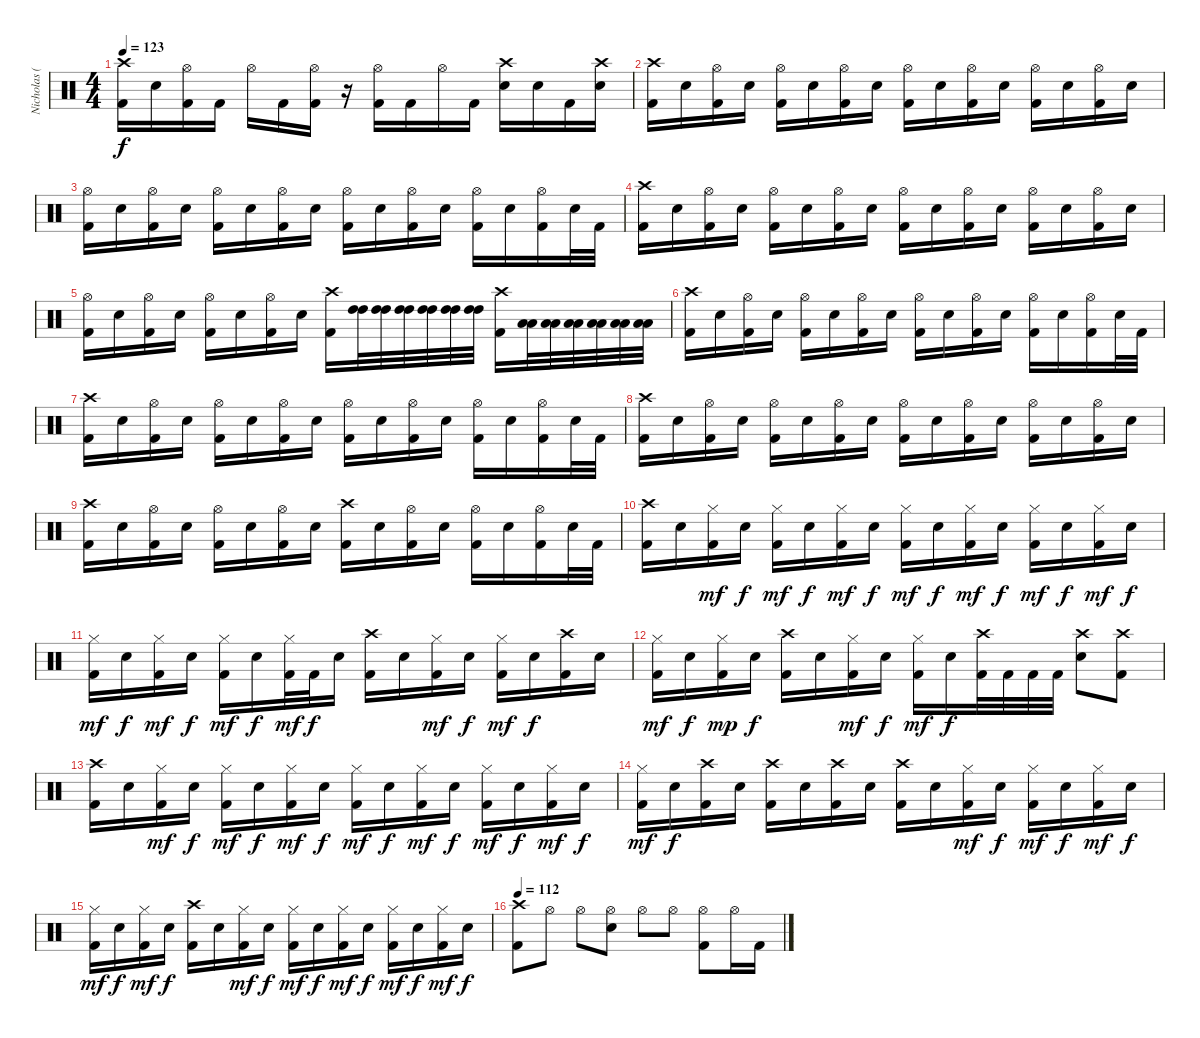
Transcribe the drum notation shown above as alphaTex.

\track ("Nicholas (Drums)" "Nicholas (") {instrument percussion}
\staff {score}
\articulation defaults
\ts (4 4)
\tempo 123
\clef neutral
\ks c
("Crash high (hit)" "Kick (hit) 2").16{dy f} "Electric Snare (hit)".16 ("Hi-Hat (open)" "Kick (hit) 2").16 "Kick (hit) 2".16 "Hi-Hat (open)".16 "Kick (hit) 2".16 ("Hi-Hat (open)" "Kick (hit) 2").16 r.16 ("Hi-Hat (open)" "Kick (hit) 2").16 "Kick (hit) 2".16 "Hi-Hat (open)".16 "Kick (hit) 2".16 ("Crash high (hit)" "Electric Snare (hit)").16 "Electric Snare (hit)".16 "Kick (hit) 2".16 ("Crash high (hit)" "Electric Snare (hit)").16 |
("Crash high (hit)" "Kick (hit) 2").16 "Electric Snare (hit)".16 ("Hi-Hat (open)" "Kick (hit) 2").16 "Electric Snare (hit)".16 ("Hi-Hat (open)" "Kick (hit) 2").16 "Electric Snare (hit)".16 ("Hi-Hat (open)" "Kick (hit) 2").16 "Electric Snare (hit)".16 ("Hi-Hat (open)" "Kick (hit) 2").16 "Electric Snare (hit)".16 ("Hi-Hat (open)" "Kick (hit) 2").16 "Electric Snare (hit)".16 ("Hi-Hat (open)" "Kick (hit) 2").16 "Electric Snare (hit)".16 ("Hi-Hat (open)" "Kick (hit) 2").16 "Electric Snare (hit)".16 |
("Hi-Hat (open)" "Kick (hit) 2").16 "Electric Snare (hit)".16 ("Hi-Hat (open)" "Kick (hit) 2").16 "Electric Snare (hit)".16 ("Hi-Hat (open)" "Kick (hit) 2").16 "Electric Snare (hit)".16 ("Hi-Hat (open)" "Kick (hit) 2").16 "Electric Snare (hit)".16 ("Hi-Hat (open)" "Kick (hit) 2").16 "Electric Snare (hit)".16 ("Hi-Hat (open)" "Kick (hit) 2").16 "Electric Snare (hit)".16 ("Hi-Hat (open)" "Kick (hit) 2").16 "Electric Snare (hit)".16 ("Hi-Hat (open)" "Kick (hit) 2").16 "Electric Snare (hit)".32 "Kick (hit) 2".32 |
("Crash high (hit)" "Kick (hit) 2").16 "Electric Snare (hit)".16 ("Hi-Hat (open)" "Kick (hit) 2").16 "Electric Snare (hit)".16 ("Hi-Hat (open)" "Kick (hit) 2").16 "Electric Snare (hit)".16 ("Hi-Hat (open)" "Kick (hit) 2").16 "Electric Snare (hit)".16 ("Hi-Hat (open)" "Kick (hit) 2").16 "Electric Snare (hit)".16 ("Hi-Hat (open)" "Kick (hit) 2").16 "Electric Snare (hit)".16 ("Hi-Hat (open)" "Kick (hit) 2").16 "Electric Snare (hit)".16 ("Hi-Hat (open)" "Kick (hit) 2").16 "Electric Snare (hit)".16 |
("Hi-Hat (open)" "Kick (hit) 2").16 "Electric Snare (hit)".16 ("Hi-Hat (open)" "Kick (hit) 2").16 "Electric Snare (hit)".16 ("Hi-Hat (open)" "Kick (hit) 2").16 "Electric Snare (hit)".16 ("Hi-Hat (open)" "Kick (hit) 2").16 "Electric Snare (hit)".16 ("Crash high (hit)" "Kick (hit) 2").16 ("High Tom (hit)" "High Tom (hit)").32 ("High Tom (hit)" "High Tom (hit)").32 ("High Tom (hit)" "High Tom (hit)").32 ("High Tom (hit)" "High Tom (hit)").32 ("High Tom (hit)" "High Tom (hit)").32 ("High Tom (hit)" "High Tom (hit)").32 ("Crash high (hit)" "Kick (hit) 2").16 ("Low Tom (hit)" "Low Tom (hit)").32 ("Low Tom (hit)" "Low Tom (hit)").32 ("Low Tom (hit)" "Low Tom (hit)").32 ("Low Tom (hit)" "Low Tom (hit)").32 ("Low Tom (hit)" "Low Tom (hit)").32 ("Low Tom (hit)" "Low Tom (hit)").32 |
("Crash high (hit)" "Kick (hit) 2").16 "Electric Snare (hit)".16 ("Hi-Hat (open)" "Kick (hit) 2").16 "Electric Snare (hit)".16 ("Hi-Hat (open)" "Kick (hit) 2").16 "Electric Snare (hit)".16 ("Hi-Hat (open)" "Kick (hit) 2").16 "Electric Snare (hit)".16 ("Hi-Hat (open)" "Kick (hit) 2").16 "Electric Snare (hit)".16 ("Hi-Hat (open)" "Kick (hit) 2").16 "Electric Snare (hit)".16 ("Hi-Hat (open)" "Kick (hit) 2").16 "Electric Snare (hit)".16 ("Hi-Hat (open)" "Kick (hit) 2").16 "Electric Snare (hit)".32 "Kick (hit) 2".32 |
("Crash high (hit)" "Kick (hit) 2").16 "Electric Snare (hit)".16 ("Hi-Hat (open)" "Kick (hit) 2").16 "Electric Snare (hit)".16 ("Hi-Hat (open)" "Kick (hit) 2").16 "Electric Snare (hit)".16 ("Hi-Hat (open)" "Kick (hit) 2").16 "Electric Snare (hit)".16 ("Hi-Hat (open)" "Kick (hit) 2").16 "Electric Snare (hit)".16 ("Hi-Hat (open)" "Kick (hit) 2").16 "Electric Snare (hit)".16 ("Hi-Hat (open)" "Kick (hit) 2").16 "Electric Snare (hit)".16 ("Hi-Hat (open)" "Kick (hit) 2").16 "Electric Snare (hit)".32 "Kick (hit) 2".32 |
("Crash high (hit)" "Kick (hit) 2").16 "Electric Snare (hit)".16 ("Hi-Hat (open)" "Kick (hit) 2").16 "Electric Snare (hit)".16 ("Hi-Hat (open)" "Kick (hit) 2").16 "Electric Snare (hit)".16 ("Hi-Hat (open)" "Kick (hit) 2").16 "Electric Snare (hit)".16 ("Hi-Hat (open)" "Kick (hit) 2").16 "Electric Snare (hit)".16 ("Hi-Hat (open)" "Kick (hit) 2").16 "Electric Snare (hit)".16 ("Hi-Hat (open)" "Kick (hit) 2").16 "Electric Snare (hit)".16 ("Hi-Hat (open)" "Kick (hit) 2").16 "Electric Snare (hit)".16 |
("Crash high (hit)" "Kick (hit) 2").16 "Electric Snare (hit)".16 ("Hi-Hat (open)" "Kick (hit) 2").16 "Electric Snare (hit)".16 ("Hi-Hat (open)" "Kick (hit) 2").16 "Electric Snare (hit)".16 ("Hi-Hat (open)" "Kick (hit) 2").16 "Electric Snare (hit)".16 ("Crash high (hit)" "Kick (hit) 2").16 "Electric Snare (hit)".16 ("Hi-Hat (open)" "Kick (hit) 2").16 "Electric Snare (hit)".16 ("Hi-Hat (open)" "Kick (hit) 2").16 "Electric Snare (hit)".16 ("Hi-Hat (open)" "Kick (hit) 2").16 "Electric Snare (hit)".32 "Kick (hit) 2".32 |
("Crash high (hit)" "Kick (hit) 2").16 "Electric Snare (hit)".16 ("Hi-Hat (closed)" "Kick (hit) 2").16{dy mf} "Electric Snare (hit)".16{dy f} ("Hi-Hat (closed)" "Kick (hit) 2").16{dy mf} "Electric Snare (hit)".16{dy f} ("Hi-Hat (closed)" "Kick (hit) 2").16{dy mf} "Electric Snare (hit)".16{dy f} ("Hi-Hat (closed)" "Kick (hit) 2").16{dy mf} "Electric Snare (hit)".16{dy f} ("Hi-Hat (closed)" "Kick (hit) 2").16{dy mf} "Electric Snare (hit)".16{dy f} ("Hi-Hat (closed)" "Kick (hit) 2").16{dy mf} "Electric Snare (hit)".16{dy f} ("Hi-Hat (closed)" "Kick (hit) 2").16{dy mf} "Electric Snare (hit)".16{dy f} |
("Hi-Hat (closed)" "Kick (hit) 2").16{dy mf} "Electric Snare (hit)".16{dy f} ("Hi-Hat (closed)" "Kick (hit) 2").16{dy mf} "Electric Snare (hit)".16{dy f} ("Hi-Hat (closed)" "Kick (hit) 2").16{dy mf} "Electric Snare (hit)".16{dy f} ("Hi-Hat (closed)" "Kick (hit) 2").32{dy mf} "Kick (hit) 2".32{dy f} "Electric Snare (hit)".16 ("Crash high (hit)" "Kick (hit) 2").16 "Electric Snare (hit)".16 ("Hi-Hat (closed)" "Kick (hit) 2").16{dy mf} "Electric Snare (hit)".16{dy f} ("Hi-Hat (closed)" "Kick (hit) 2").16{dy mf} "Electric Snare (hit)".16{dy f} ("Crash high (hit)" "Kick (hit) 2").16 "Electric Snare (hit)".16 |
("Hi-Hat (closed)" "Kick (hit) 2").16{dy mf} "Electric Snare (hit)".16{dy f} ("Hi-Hat (closed)" "Kick (hit) 2").16{dy mp} "Electric Snare (hit)".16{dy f} ("Crash high (hit)" "Kick (hit) 2").16 "Electric Snare (hit)".16 ("Hi-Hat (closed)" "Kick (hit) 2").16{dy mf} "Electric Snare (hit)".16{dy f} ("Hi-Hat (closed)" "Kick (hit) 2").16{dy mf} "Electric Snare (hit)".16{dy f} ("Crash high (hit)" "Kick (hit) 2").32 "Kick (hit) 2".32 "Kick (hit) 2".32 "Kick (hit) 2".32 ("Crash high (hit)" "Electric Snare (hit)").8 ("Crash high (hit)" "Kick (hit) 2").8 |
("Crash high (hit)" "Kick (hit) 2").16 "Electric Snare (hit)".16 ("Hi-Hat (closed)" "Kick (hit) 2").16{dy mf} "Electric Snare (hit)".16{dy f} ("Hi-Hat (closed)" "Kick (hit) 2").16{dy mf} "Electric Snare (hit)".16{dy f} ("Hi-Hat (closed)" "Kick (hit) 2").16{dy mf} "Electric Snare (hit)".16{dy f} ("Hi-Hat (closed)" "Kick (hit) 2").16{dy mf} "Electric Snare (hit)".16{dy f} ("Hi-Hat (closed)" "Kick (hit) 2").16{dy mf} "Electric Snare (hit)".16{dy f} ("Hi-Hat (closed)" "Kick (hit) 2").16{dy mf} "Electric Snare (hit)".16{dy f} ("Hi-Hat (closed)" "Kick (hit) 2").16{dy mf} "Electric Snare (hit)".16{dy f} |
("Hi-Hat (closed)" "Kick (hit) 2").16{dy mf} "Electric Snare (hit)".16{dy f} ("Crash high (hit)" "Kick (hit) 2").16 "Electric Snare (hit)".16 ("Crash high (hit)" "Kick (hit) 2").16 "Electric Snare (hit)".16 ("Crash high (hit)" "Kick (hit) 2").16 "Electric Snare (hit)".16 ("Crash high (hit)" "Kick (hit) 2").16 "Electric Snare (hit)".16 ("Hi-Hat (closed)" "Kick (hit) 2").16{dy mf} "Electric Snare (hit)".16{dy f} ("Hi-Hat (closed)" "Kick (hit) 2").16{dy mf} "Electric Snare (hit)".16{dy f} ("Hi-Hat (closed)" "Kick (hit) 2").16{dy mf} "Electric Snare (hit)".16{dy f} |
("Hi-Hat (closed)" "Kick (hit) 2").16{dy mf} "Electric Snare (hit)".16{dy f} ("Hi-Hat (closed)" "Kick (hit) 2").16{dy mf} "Electric Snare (hit)".16{dy f} ("Crash high (hit)" "Kick (hit) 2").16 "Electric Snare (hit)".16 ("Hi-Hat (closed)" "Kick (hit) 2").16{dy mf} "Electric Snare (hit)".16{dy f} ("Hi-Hat (closed)" "Kick (hit) 2").16{dy mf} "Electric Snare (hit)".16{dy f} ("Hi-Hat (closed)" "Kick (hit) 2").16{dy mf} "Electric Snare (hit)".16{dy f} ("Hi-Hat (closed)" "Kick (hit) 2").16{dy mf} "Electric Snare (hit)".16{dy f} ("Hi-Hat (closed)" "Kick (hit) 2").16{dy mf} "Electric Snare (hit)".16{dy f} |
\tempo 112
("Crash high (hit)" "Kick (hit) 2").8 "Hi-Hat (open)".8 "Hi-Hat (open)".8 ("Hi-Hat (open)" "Electric Snare (hit)").8 "Hi-Hat (open)".8 "Hi-Hat (open)".8 ("Hi-Hat (open)" "Kick (hit) 2").8 "Hi-Hat (open)".16 "Kick (hit) 2".16
